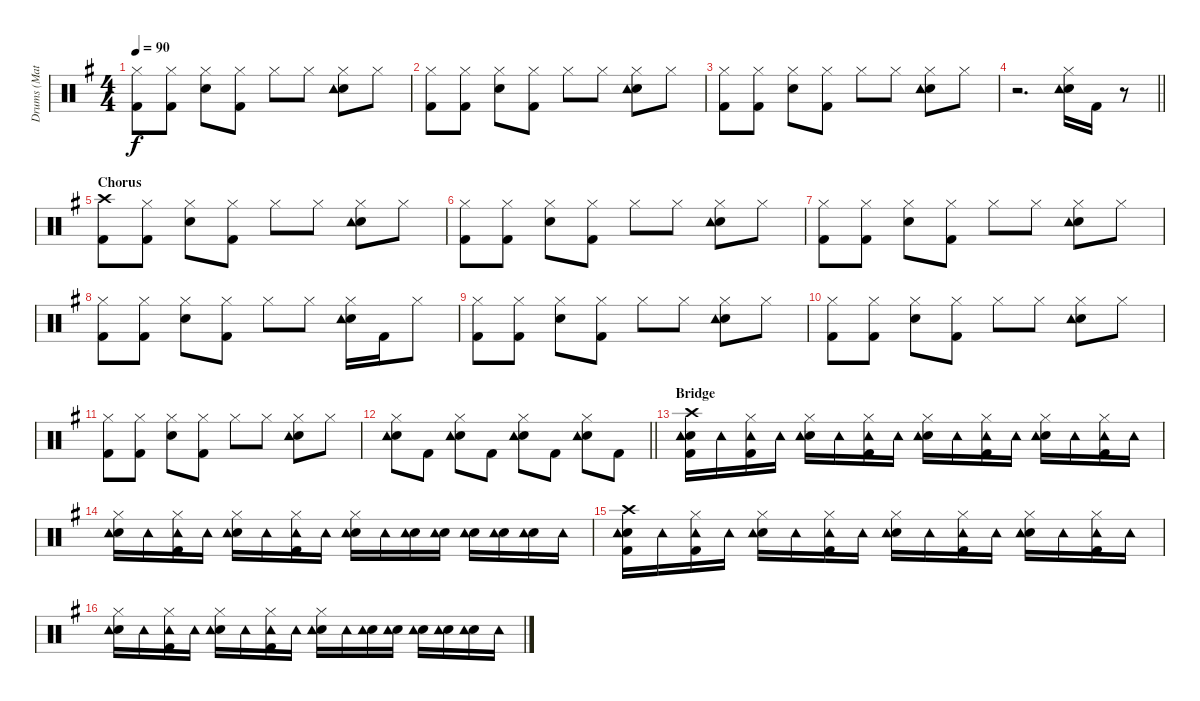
\track ("Drums (Matt)" "Drums (Mat") {instrument percussion}
\staff {score}
\articulation defaults
\ts (4 4)
\tempo 90
\clef neutral
\ks g
("Hi-Hat (closed)" "Kick (hit) 2").8{dy f} ("Hi-Hat (closed)" "Kick (hit) 2").8 ("Hi-Hat (closed)" "Snare (hit) 2").8 ("Hi-Hat (closed)" "Kick (hit) 2").8 "Hi-Hat (closed)".8 "Hi-Hat (closed)".8 ("Hi-Hat (closed)" "Snare (hit) 2" "Tambourine (hit)").8 "Hi-Hat (closed)".8 |
("Hi-Hat (closed)" "Kick (hit) 2").8 ("Hi-Hat (closed)" "Kick (hit) 2").8 ("Hi-Hat (closed)" "Snare (hit) 2").8 ("Hi-Hat (closed)" "Kick (hit) 2").8 "Hi-Hat (closed)".8 "Hi-Hat (closed)".8 ("Hi-Hat (closed)" "Snare (hit) 2" "Tambourine (hit)").8 "Hi-Hat (closed)".8 |
("Hi-Hat (closed)" "Kick (hit) 2").8 ("Hi-Hat (closed)" "Kick (hit) 2").8 ("Hi-Hat (closed)" "Snare (hit) 2").8 ("Hi-Hat (closed)" "Kick (hit) 2").8 "Hi-Hat (closed)".8 "Hi-Hat (closed)".8 ("Hi-Hat (closed)" "Snare (hit) 2" "Tambourine (hit)").8 "Hi-Hat (closed)".8 |
\barLineRight lightlight
r.2{d} ("Hi-Hat (closed)" "Snare (hit) 2" "Tambourine (hit)").16 "Kick (hit) 2".16 r.8 |
\section ("" "Chorus")
("Crash high (hit)" "Kick (hit) 2").8 ("Hi-Hat (closed)" "Kick (hit) 2").8 ("Hi-Hat (closed)" "Snare (hit) 2").8 ("Hi-Hat (closed)" "Kick (hit) 2").8 "Hi-Hat (closed)".8 "Hi-Hat (closed)".8 ("Hi-Hat (closed)" "Snare (hit) 2" "Tambourine (hit)").8 "Hi-Hat (closed)".8 |
("Hi-Hat (closed)" "Kick (hit) 2").8 ("Hi-Hat (closed)" "Kick (hit) 2").8 ("Hi-Hat (closed)" "Snare (hit) 2").8 ("Hi-Hat (closed)" "Kick (hit) 2").8 "Hi-Hat (closed)".8 "Hi-Hat (closed)".8 ("Hi-Hat (closed)" "Snare (hit) 2" "Tambourine (hit)").8 "Hi-Hat (closed)".8 |
("Hi-Hat (closed)" "Kick (hit) 2").8 ("Hi-Hat (closed)" "Kick (hit) 2").8 ("Hi-Hat (closed)" "Snare (hit) 2").8 ("Hi-Hat (closed)" "Kick (hit) 2").8 "Hi-Hat (closed)".8 "Hi-Hat (closed)".8 ("Hi-Hat (closed)" "Snare (hit) 2" "Tambourine (hit)").8 "Hi-Hat (closed)".8 |
("Hi-Hat (closed)" "Kick (hit) 2").8 ("Hi-Hat (closed)" "Kick (hit) 2").8 ("Hi-Hat (closed)" "Snare (hit) 2").8 ("Hi-Hat (closed)" "Kick (hit) 2").8 "Hi-Hat (closed)".8 "Hi-Hat (closed)".8 ("Hi-Hat (closed)" "Snare (hit) 2" "Tambourine (hit)").16 "Kick (hit) 2".16 "Hi-Hat (closed)".8 |
("Hi-Hat (closed)" "Kick (hit) 2").8 ("Hi-Hat (closed)" "Kick (hit) 2").8 ("Hi-Hat (closed)" "Snare (hit) 2").8 ("Hi-Hat (closed)" "Kick (hit) 2").8 "Hi-Hat (closed)".8 "Hi-Hat (closed)".8 ("Hi-Hat (closed)" "Snare (hit) 2" "Tambourine (hit)").8 "Hi-Hat (closed)".8 |
("Hi-Hat (closed)" "Kick (hit) 2").8 ("Hi-Hat (closed)" "Kick (hit) 2").8 ("Hi-Hat (closed)" "Snare (hit) 2").8 ("Hi-Hat (closed)" "Kick (hit) 2").8 "Hi-Hat (closed)".8 "Hi-Hat (closed)".8 ("Hi-Hat (closed)" "Snare (hit) 2" "Tambourine (hit)").8 "Hi-Hat (closed)".8 |
("Hi-Hat (closed)" "Kick (hit) 2").8 ("Hi-Hat (closed)" "Kick (hit) 2").8 ("Hi-Hat (closed)" "Snare (hit) 2").8 ("Hi-Hat (closed)" "Kick (hit) 2").8 "Hi-Hat (closed)".8 "Hi-Hat (closed)".8 ("Hi-Hat (closed)" "Snare (hit) 2" "Tambourine (hit)").8 "Hi-Hat (closed)".8 |
\barLineRight lightlight
("Hi-Hat (closed)" "Snare (hit) 2" "Tambourine (hit)").8 "Kick (hit) 2".8 ("Hi-Hat (closed)" "Snare (hit) 2" "Tambourine (hit)").8 "Kick (hit) 2".8 ("Hi-Hat (closed)" "Snare (hit) 2" "Tambourine (hit)").8 "Kick (hit) 2".8 ("Hi-Hat (closed)" "Snare (hit) 2" "Tambourine (hit)").8 "Kick (hit) 2".8 |
\section ("" "Bridge")
("Crash high (hit)" "Snare (hit) 2" "Kick (hit) 2" "Tambourine (hit)").16 "Tambourine (hit)".16 ("Hi-Hat (closed)" "Kick (hit) 2" "Tambourine (hit)").16 "Tambourine (hit)".16 ("Hi-Hat (closed)" "Snare (hit) 2" "Tambourine (hit)").16 "Tambourine (hit)".16 ("Hi-Hat (closed)" "Kick (hit) 2" "Tambourine (hit)").16 "Tambourine (hit)".16 ("Hi-Hat (closed)" "Snare (hit) 2" "Tambourine (hit)").16 "Tambourine (hit)".16 ("Hi-Hat (closed)" "Kick (hit) 2" "Tambourine (hit)").16 "Tambourine (hit)".16 ("Hi-Hat (closed)" "Snare (hit) 2" "Tambourine (hit)").16 "Tambourine (hit)".16 ("Hi-Hat (closed)" "Kick (hit) 2" "Tambourine (hit)").16 "Tambourine (hit)".16 |
("Hi-Hat (closed)" "Snare (hit) 2" "Tambourine (hit)").16 "Tambourine (hit)".16 ("Hi-Hat (closed)" "Kick (hit) 2" "Tambourine (hit)").16 "Tambourine (hit)".16 ("Hi-Hat (closed)" "Snare (hit) 2" "Tambourine (hit)").16 "Tambourine (hit)".16 ("Hi-Hat (closed)" "Kick (hit) 2" "Tambourine (hit)").16 "Tambourine (hit)".16 ("Hi-Hat (closed)" "Snare (hit) 2" "Tambourine (hit)").16 "Tambourine (hit)".16 ("Snare (hit) 2" "Tambourine (hit)").16 ("Snare (hit) 2" "Tambourine (hit)").16 ("Snare (hit) 2" "Tambourine (hit)").16 ("Snare (hit) 2" "Tambourine (hit)").16 ("Snare (hit) 2" "Tambourine (hit)").16 "Tambourine (hit)".16 |
("Crash high (hit)" "Snare (hit) 2" "Kick (hit) 2" "Tambourine (hit)").16 "Tambourine (hit)".16 ("Hi-Hat (closed)" "Kick (hit) 2" "Tambourine (hit)").16 "Tambourine (hit)".16 ("Hi-Hat (closed)" "Snare (hit) 2" "Tambourine (hit)").16 "Tambourine (hit)".16 ("Hi-Hat (closed)" "Kick (hit) 2" "Tambourine (hit)").16 "Tambourine (hit)".16 ("Hi-Hat (closed)" "Snare (hit) 2" "Tambourine (hit)").16 "Tambourine (hit)".16 ("Hi-Hat (closed)" "Kick (hit) 2" "Tambourine (hit)").16 "Tambourine (hit)".16 ("Hi-Hat (closed)" "Snare (hit) 2" "Tambourine (hit)").16 "Tambourine (hit)".16 ("Hi-Hat (closed)" "Kick (hit) 2" "Tambourine (hit)").16 "Tambourine (hit)".16 |
("Hi-Hat (closed)" "Snare (hit) 2" "Tambourine (hit)").16 "Tambourine (hit)".16 ("Hi-Hat (closed)" "Kick (hit) 2" "Tambourine (hit)").16 "Tambourine (hit)".16 ("Hi-Hat (closed)" "Snare (hit) 2" "Tambourine (hit)").16 "Tambourine (hit)".16 ("Hi-Hat (closed)" "Kick (hit) 2" "Tambourine (hit)").16 "Tambourine (hit)".16 ("Hi-Hat (closed)" "Snare (hit) 2" "Tambourine (hit)").16 "Tambourine (hit)".16 ("Snare (hit) 2" "Tambourine (hit)").16 ("Snare (hit) 2" "Tambourine (hit)").16 ("Snare (hit) 2" "Tambourine (hit)").16 ("Snare (hit) 2" "Tambourine (hit)").16 ("Snare (hit) 2" "Tambourine (hit)").16 "Tambourine (hit)".16
